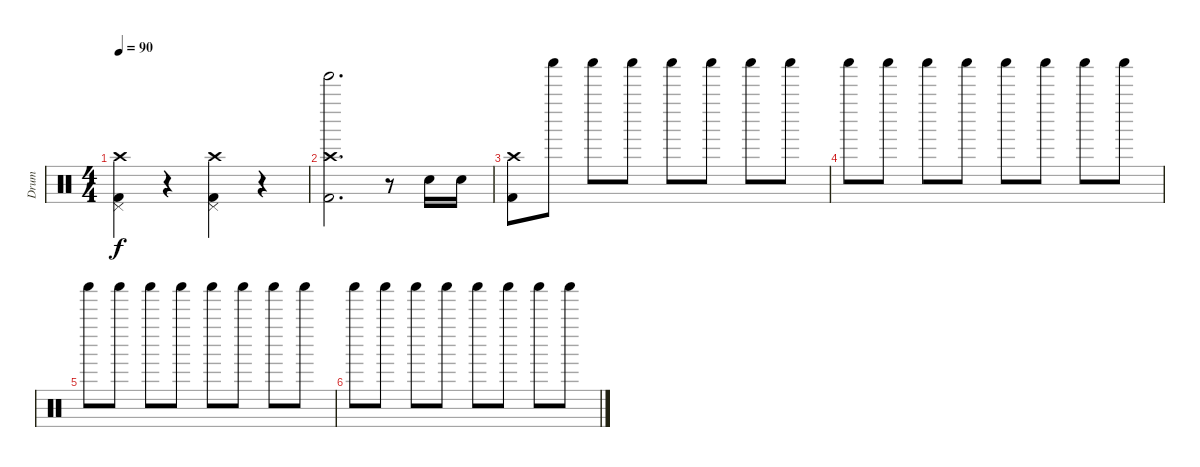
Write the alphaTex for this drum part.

\track ("Drum" "Drum") {instrument percussion}
\staff {score}
\articulation defaults
\ts (4 4)
\tempo 90
\clef neutral
\ks c
("Pedal Hi-Hat (hit)" "Kick (hit) 2" "Crash high (hit)").4{dy f} r.4 ("Pedal Hi-Hat (hit)" "Kick (hit) 2" "Crash high (hit)").4 r.4 |
("Tinkle Bell (hit)" "Kick (hit) 2" "Crash high (hit)").2{d} r.8 "Electric Snare (hit)".16 "Electric Snare (hit)".16 |
("Crash high (hit)" "Kick (hit) 2").8 "Shaker (hit)".8 "Shaker (hit)".8 "Shaker (hit)".8 "Shaker (hit)".8 "Shaker (hit)".8 "Shaker (hit)".8 "Shaker (hit)".8 |
"Shaker (hit)".8 "Shaker (hit)".8 "Shaker (hit)".8 "Shaker (hit)".8 "Shaker (hit)".8 "Shaker (hit)".8 "Shaker (hit)".8 "Shaker (hit)".8 |
"Shaker (hit)".8 "Shaker (hit)".8 "Shaker (hit)".8 "Shaker (hit)".8 "Shaker (hit)".8 "Shaker (hit)".8 "Shaker (hit)".8 "Shaker (hit)".8 |
"Shaker (hit)".8 "Shaker (hit)".8 "Shaker (hit)".8 "Shaker (hit)".8 "Shaker (hit)".8 "Shaker (hit)".8 "Shaker (hit)".8 "Shaker (hit)".8
